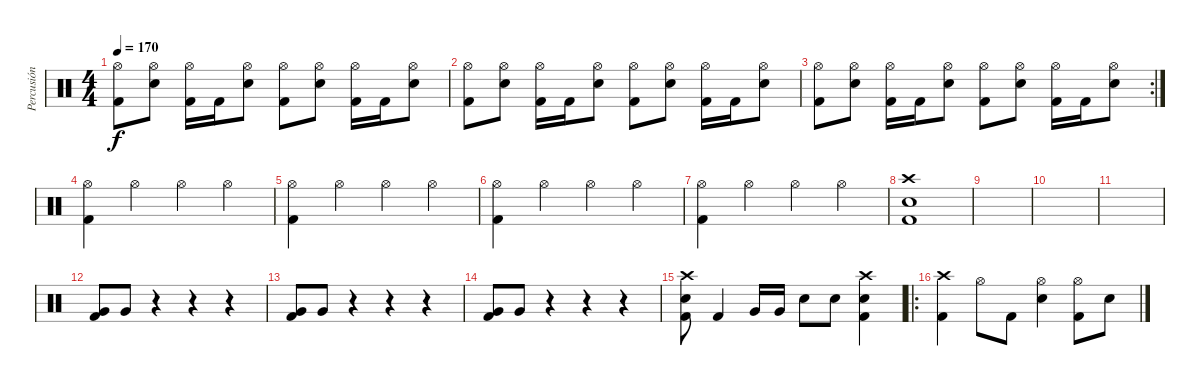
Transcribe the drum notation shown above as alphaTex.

\track ("Percusión" "Percusión") {instrument percussion}
\staff {score}
\articulation defaults
\ts (4 4)
\tempo 170
\clef neutral
\ks c
("Kick (hit) 2" "Hi-Hat (open)").8{dy f} ("Snare (hit) 2" "Hi-Hat (open)").8 ("Kick (hit) 2" "Hi-Hat (open)").16 "Kick (hit) 2".16 ("Snare (hit) 2" "Hi-Hat (open)").8 ("Kick (hit) 2" "Hi-Hat (open)").8 ("Snare (hit) 2" "Hi-Hat (open)").8 ("Kick (hit) 2" "Hi-Hat (open)").16 "Kick (hit) 2".16 ("Snare (hit) 2" "Hi-Hat (open)").8 |
("Kick (hit) 2" "Hi-Hat (open)").8 ("Snare (hit) 2" "Hi-Hat (open)").8 ("Kick (hit) 2" "Hi-Hat (open)").16 "Kick (hit) 2".16 ("Snare (hit) 2" "Hi-Hat (open)").8 ("Kick (hit) 2" "Hi-Hat (open)").8 ("Snare (hit) 2" "Hi-Hat (open)").8 ("Kick (hit) 2" "Hi-Hat (open)").16 "Kick (hit) 2".16 ("Snare (hit) 2" "Hi-Hat (open)").8 |
\rc 2
("Kick (hit) 2" "Hi-Hat (open)").8 ("Snare (hit) 2" "Hi-Hat (open)").8 ("Kick (hit) 2" "Hi-Hat (open)").16 "Kick (hit) 2".16 ("Snare (hit) 2" "Hi-Hat (open)").8 ("Kick (hit) 2" "Hi-Hat (open)").8 ("Snare (hit) 2" "Hi-Hat (open)").8 ("Kick (hit) 2" "Hi-Hat (open)").16 "Kick (hit) 2".16 ("Snare (hit) 2" "Hi-Hat (open)").8 |
("Kick (hit) 2" "Hi-Hat (open)").4 "Hi-Hat (open)".4 "Hi-Hat (open)".4 "Hi-Hat (open)".4 |
("Kick (hit) 2" "Hi-Hat (open)").4 "Hi-Hat (open)".4 "Hi-Hat (open)".4 "Hi-Hat (open)".4 |
("Kick (hit) 2" "Hi-Hat (open)").4 "Hi-Hat (open)".4 "Hi-Hat (open)".4 "Hi-Hat (open)".4 |
("Kick (hit) 2" "Hi-Hat (open)").4 "Hi-Hat (open)".4 "Hi-Hat (open)".4 "Hi-Hat (open)".4 |
("Kick (hit) 2" "Snare (hit) 2" "Crash high (hit)").1 |
|
|
|
("Kick (hit) 2" "Very Low Tom (hit)").8 "Very Low Tom (hit)".8 r.4 r.4 r.4 |
("Kick (hit) 2" "Very Low Tom (hit)").8 "Very Low Tom (hit)".8 r.4 r.4 r.4 |
("Kick (hit) 2" "Very Low Tom (hit)").8 "Very Low Tom (hit)".8 r.4 r.4 r.4 |
("Kick (hit) 2" "Snare (hit) 2" "Crash high (hit)").8 "Kick (hit) 2".4 "Very Low Tom (hit)".16 "Very Low Tom (hit)".16 "Snare (hit) 2".8 "Snare (hit) 2".8 ("Kick (hit) 2" "Snare (hit) 2" "Crash high (hit)").4 |
\ro
("Kick (hit) 2" "Crash high (hit)").4 "Hi-Hat (open)".8 "Kick (hit) 2".8 ("Snare (hit) 2" "Hi-Hat (open)").4 ("Kick (hit) 2" "Hi-Hat (open)").8 "Snare (hit) 2".8
